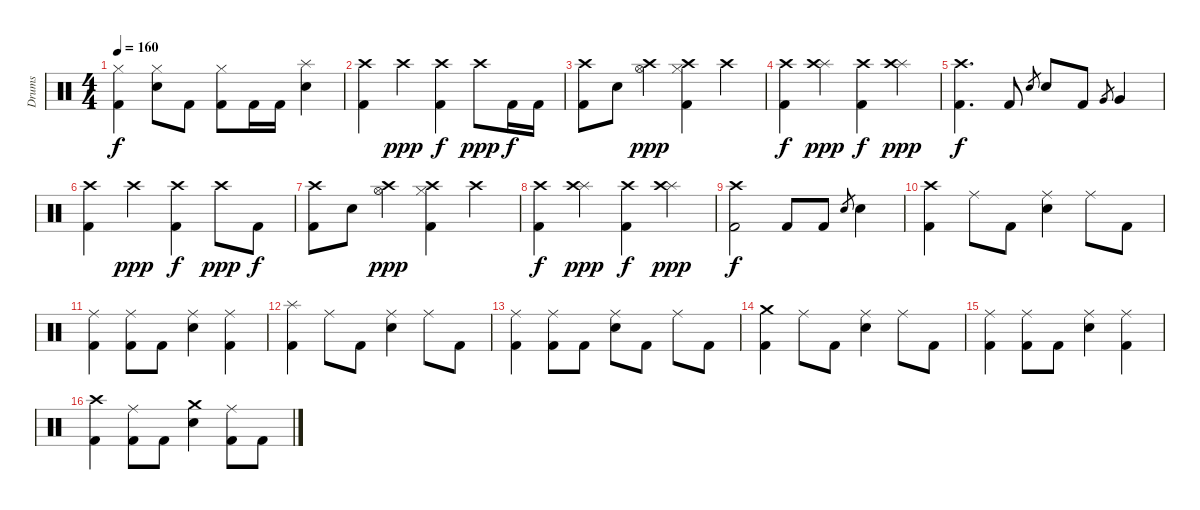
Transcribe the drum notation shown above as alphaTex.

\track ("Drums" "Drums") {instrument percussion}
\staff {score}
\articulation defaults
\ts (4 4)
\tempo 160
\clef neutral
\ks c
("Kick (hit) 2" "Hi-Hat (closed)").4{dy f} ("Hi-Hat (closed)" "Electric Snare (hit)").8 "Kick (hit) 2".8 ("Kick (hit) 2" "Hi-Hat (closed)").8 "Kick (hit) 2".16 "Kick (hit) 2".16 ("Splash (hit)" "Electric Snare (hit)").4 |
("Kick (hit) 2" "Crash high (hit)").4 "Crash high (hit)".4{dy ppp} ("Kick (hit) 2" "Crash high (hit)").4{dy f} "Crash high (hit)".8{dy ppp} "Kick (hit) 2".16{dy f} "Kick (hit) 2".16 |
("Kick (hit) 2" "Crash high (hit)").8 "Electric Snare (hit)".8 ("Hi-Hat (open)" "Crash high (hit)").4{dy ppp} ("Kick (hit) 2" "Hi-Hat (closed)" "Crash high (hit)").4 "Crash high (hit)".4 |
("Kick (hit) 2" "Crash high (hit)").4{dy f} ("Splash (hit)" "Crash high (hit)").4{dy ppp} ("Kick (hit) 2" "Crash high (hit)").4{dy f} ("Splash (hit)" "Crash high (hit)").4{dy ppp} |
("Kick (hit) 2" "Crash high (hit)").4{d dy f} "Kick (hit) 2".8 "Electric Snare (hit)".8{gr} "Electric Snare (hit)".8 "Kick (hit) 2".8 "Very Low Tom (hit)".8{gr} "Very Low Tom (hit)".4 |
("Kick (hit) 2" "Crash high (hit)").4 "Crash high (hit)".4{dy ppp} ("Kick (hit) 2" "Crash high (hit)").4{dy f} "Crash high (hit)".8{dy ppp} "Kick (hit) 2".8{dy f} |
("Kick (hit) 2" "Crash high (hit)").8 "Electric Snare (hit)".8 ("Hi-Hat (open)" "Crash high (hit)").4{dy ppp} ("Kick (hit) 2" "Hi-Hat (closed)" "Crash high (hit)").4 "Crash high (hit)".4 |
("Kick (hit) 2" "Crash high (hit)").4{dy f} ("Splash (hit)" "Crash high (hit)").4{dy ppp} ("Kick (hit) 2" "Crash high (hit)").4{dy f} ("Splash (hit)" "Crash high (hit)").4{dy ppp} |
("Kick (hit) 2" "Crash high (hit)").2{dy f} "Kick (hit) 2".8 "Kick (hit) 2".8 "Electric Snare (hit)".8{gr} "Electric Snare (hit)".4 |
("Kick (hit) 2" "Crash high (hit)").4 "Ride (middle)".8 "Kick (hit) 2".8 ("Ride (middle)" "Electric Snare (hit)").4 "Ride (middle)".8 "Kick (hit) 2".8 |
("Kick (hit) 2" "Ride (middle)").4 ("Kick (hit) 2" "Ride (middle)").8 "Kick (hit) 2".8 ("Ride (middle)" "Electric Snare (hit)").4 ("Kick (hit) 2" "Ride (middle)").4 |
("Kick (hit) 2" "Splash (hit)").4 "Ride (middle)".8 "Kick (hit) 2".8 ("Ride (middle)" "Electric Snare (hit)").4 "Ride (middle)".8 "Kick (hit) 2".8 |
("Kick (hit) 2" "Ride (middle)").4 ("Kick (hit) 2" "Ride (middle)").8 "Kick (hit) 2".8 ("Ride (middle)" "Electric Snare (hit)").8 "Kick (hit) 2".8 "Ride (middle)".8 "Kick (hit) 2".8 |
("Kick (hit) 2" "Crash medium (hit)").4 "Ride (middle)".8 "Kick (hit) 2".8 ("Ride (middle)" "Electric Snare (hit)").4 "Ride (middle)".8 "Kick (hit) 2".8 |
("Kick (hit) 2" "Ride (middle)").4 ("Kick (hit) 2" "Ride (middle)").8 "Kick (hit) 2".8 ("Ride (middle)" "Electric Snare (hit)").4 ("Kick (hit) 2" "Ride (middle)").4 |
("Kick (hit) 2" "Crash high (hit)").4 ("Kick (hit) 2" "Ride (middle)").8 "Kick (hit) 2".8 ("Crash medium (hit)" "Electric Snare (hit)").4 ("Kick (hit) 2" "Ride (middle)").8 "Kick (hit) 2".8
